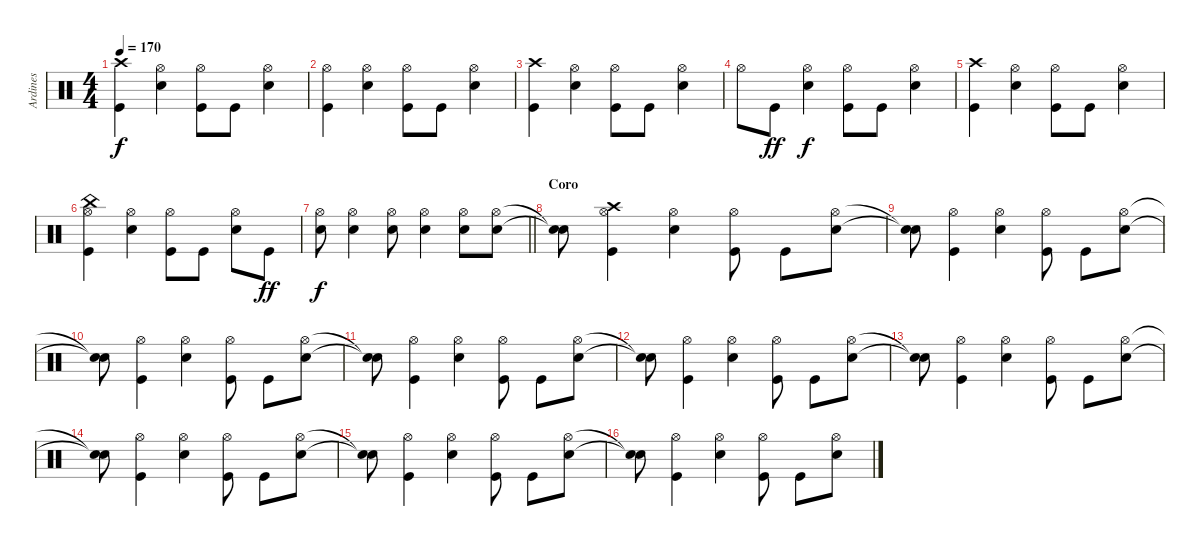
\track ("Ardines" "Ardines") {instrument percussion}
\staff {score}
\articulation defaults
\ts (4 4)
\tempo 170
\clef neutral
\ks c
("Kick (hit)" "Crash high (hit)").4{dy f} ("Snare (hit) 2" "Hi-Hat (open)").4 ("Kick (hit)" "Hi-Hat (open)").8 "Kick (hit)".8 ("Snare (hit) 2" "Hi-Hat (open)").4 |
("Kick (hit)" "Hi-Hat (open)").4 ("Snare (hit) 2" "Hi-Hat (open)").4 ("Kick (hit)" "Hi-Hat (open)").8 "Kick (hit)".8 ("Snare (hit) 2" "Hi-Hat (open)").4 |
("Kick (hit)" "Crash high (hit)").4 ("Snare (hit) 2" "Hi-Hat (open)").4 ("Kick (hit)" "Hi-Hat (open)").8 "Kick (hit)".8 ("Snare (hit) 2" "Hi-Hat (open)").4 |
"Hi-Hat (open)".8 "Kick (hit)".8{dy ff} ("Snare (hit) 2" "Hi-Hat (open)").4{dy f} ("Kick (hit)" "Hi-Hat (open)").8 "Kick (hit)".8 ("Snare (hit) 2" "Hi-Hat (open)").4 |
("Kick (hit)" "Crash high (hit)").4 ("Snare (hit) 2" "Hi-Hat (open)").4 ("Kick (hit)" "Hi-Hat (open)").8 "Kick (hit)".8 ("Snare (hit) 2" "Hi-Hat (open)").4 |
("Kick (hit)" "Hi-Hat (open)" "China (hit)").4 ("Snare (hit) 2" "Hi-Hat (open)").4 ("Kick (hit)" "Hi-Hat (open)").8 "Kick (hit)".8 ("Snare (hit) 2" "Hi-Hat (open)").8 "Kick (hit)".8{dy ff} |
\barLineRight lightlight
("Hi-Hat (open)" "Snare (hit) 2").8{dy f} ("Hi-Hat (open)" "Snare (hit) 2").4 ("Hi-Hat (open)" "Snare (hit) 2").8 ("Hi-Hat (open)" "Snare (hit) 2").4 ("Hi-Hat (open)" "Snare (hit) 2").8 ("Hi-Hat (open)" "Snare (hit) 2").8 |
\section ("" "Coro")
("Snare (hit)"{t} "Snare (hit)"{t}).8 ("Kick (hit)" "Hi-Hat (open)" "Crash high (hit)").4 ("Snare (hit) 2" "Hi-Hat (open)").4 ("Kick (hit)" "Hi-Hat (open)").8 "Kick (hit)".8 ("Snare (hit) 2" "Hi-Hat (open)").8 |
("Snare (hit)"{t} "Snare (hit)"{t}).8 ("Kick (hit)" "Hi-Hat (open)").4 ("Snare (hit) 2" "Hi-Hat (open)").4 ("Kick (hit)" "Hi-Hat (open)").8 "Kick (hit)".8 ("Snare (hit) 2" "Hi-Hat (open)").8 |
("Snare (hit)"{t} "Snare (hit)"{t}).8 ("Kick (hit)" "Hi-Hat (open)").4 ("Snare (hit) 2" "Hi-Hat (open)").4 ("Kick (hit)" "Hi-Hat (open)").8 "Kick (hit)".8 ("Snare (hit) 2" "Hi-Hat (open)").8 |
("Snare (hit)"{t} "Snare (hit)"{t}).8 ("Kick (hit)" "Hi-Hat (open)").4 ("Snare (hit) 2" "Hi-Hat (open)").4 ("Kick (hit)" "Hi-Hat (open)").8 "Kick (hit)".8 ("Snare (hit) 2" "Hi-Hat (open)").8 |
("Snare (hit)"{t} "Snare (hit)"{t}).8 ("Kick (hit)" "Hi-Hat (open)").4 ("Snare (hit) 2" "Hi-Hat (open)").4 ("Kick (hit)" "Hi-Hat (open)").8 "Kick (hit)".8 ("Snare (hit) 2" "Hi-Hat (open)").8 |
("Snare (hit)"{t} "Snare (hit)"{t}).8 ("Kick (hit)" "Hi-Hat (open)").4 ("Snare (hit) 2" "Hi-Hat (open)").4 ("Kick (hit)" "Hi-Hat (open)").8 "Kick (hit)".8 ("Snare (hit) 2" "Hi-Hat (open)").8 |
("Snare (hit)"{t} "Snare (hit)"{t}).8 ("Kick (hit)" "Hi-Hat (open)").4 ("Snare (hit) 2" "Hi-Hat (open)").4 ("Kick (hit)" "Hi-Hat (open)").8 "Kick (hit)".8 ("Snare (hit) 2" "Hi-Hat (open)").8 |
("Snare (hit)"{t} "Snare (hit)"{t}).8 ("Kick (hit)" "Hi-Hat (open)").4 ("Snare (hit) 2" "Hi-Hat (open)").4 ("Kick (hit)" "Hi-Hat (open)").8 "Kick (hit)".8 ("Snare (hit) 2" "Hi-Hat (open)").8 |
("Snare (hit)"{t} "Snare (hit)"{t}).8 ("Kick (hit)" "Hi-Hat (open)").4 ("Snare (hit) 2" "Hi-Hat (open)").4 ("Kick (hit)" "Hi-Hat (open)").8 "Kick (hit)".8 ("Snare (hit) 2" "Hi-Hat (open)").8
